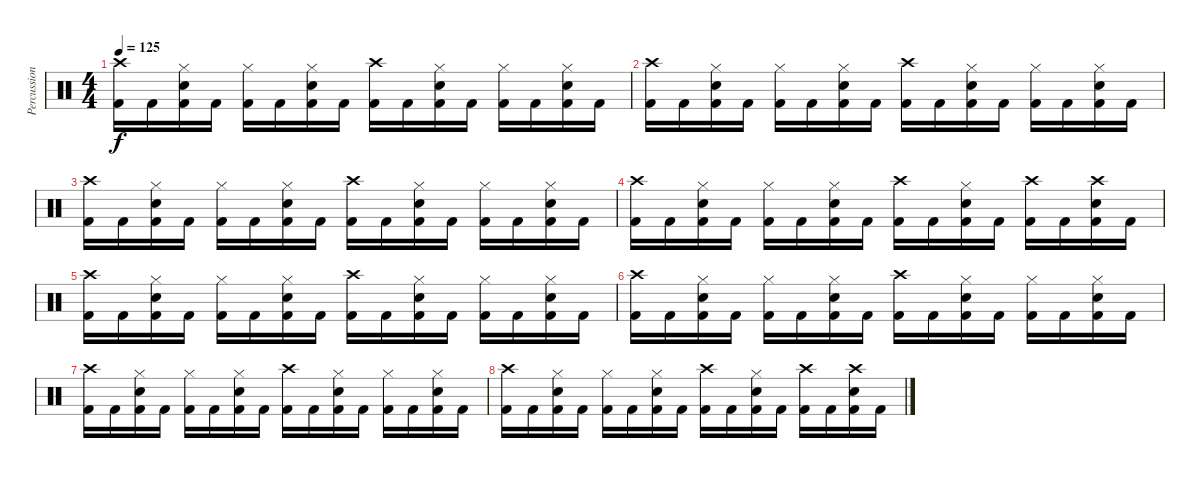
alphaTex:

\track ("Percussion" "Percussion") {instrument percussion}
\staff {score}
\articulation defaults
\ts (4 4)
\tempo 125
\clef neutral
\ks c
("Crash high (hit)" "Kick (hit) 2").16{dy f} "Kick (hit) 2".16 ("Hi-Hat (closed)" "Snare (hit) 2" "Kick (hit) 2").16 "Kick (hit) 2".16 ("Hi-Hat (closed)" "Kick (hit) 2").16 "Kick (hit) 2".16 ("Hi-Hat (closed)" "Snare (hit) 2" "Kick (hit) 2").16 "Kick (hit) 2".16 ("Crash high (hit)" "Kick (hit) 2").16 "Kick (hit) 2".16 ("Hi-Hat (closed)" "Snare (hit) 2" "Kick (hit) 2").16 "Kick (hit) 2".16 ("Hi-Hat (closed)" "Kick (hit) 2").16 "Kick (hit) 2".16 ("Hi-Hat (closed)" "Snare (hit) 2" "Kick (hit) 2").16 "Kick (hit) 2".16 |
("Crash high (hit)" "Kick (hit) 2").16 "Kick (hit) 2".16 ("Hi-Hat (closed)" "Snare (hit) 2" "Kick (hit) 2").16 "Kick (hit) 2".16 ("Hi-Hat (closed)" "Kick (hit) 2").16 "Kick (hit) 2".16 ("Hi-Hat (closed)" "Snare (hit) 2" "Kick (hit) 2").16 "Kick (hit) 2".16 ("Crash high (hit)" "Kick (hit) 2").16 "Kick (hit) 2".16 ("Hi-Hat (closed)" "Snare (hit) 2" "Kick (hit) 2").16 "Kick (hit) 2".16 ("Hi-Hat (closed)" "Kick (hit) 2").16 "Kick (hit) 2".16 ("Hi-Hat (closed)" "Snare (hit) 2" "Kick (hit) 2").16 "Kick (hit) 2".16 |
("Crash high (hit)" "Kick (hit) 2").16 "Kick (hit) 2".16 ("Hi-Hat (closed)" "Snare (hit) 2" "Kick (hit) 2").16 "Kick (hit) 2".16 ("Hi-Hat (closed)" "Kick (hit) 2").16 "Kick (hit) 2".16 ("Hi-Hat (closed)" "Snare (hit) 2" "Kick (hit) 2").16 "Kick (hit) 2".16 ("Crash high (hit)" "Kick (hit) 2").16 "Kick (hit) 2".16 ("Hi-Hat (closed)" "Snare (hit) 2" "Kick (hit) 2").16 "Kick (hit) 2".16 ("Hi-Hat (closed)" "Kick (hit) 2").16 "Kick (hit) 2".16 ("Hi-Hat (closed)" "Snare (hit) 2" "Kick (hit) 2").16 "Kick (hit) 2".16 |
("Crash high (hit)" "Kick (hit) 2").16 "Kick (hit) 2".16 ("Hi-Hat (closed)" "Snare (hit) 2" "Kick (hit) 2").16 "Kick (hit) 2".16 ("Hi-Hat (closed)" "Kick (hit) 2").16 "Kick (hit) 2".16 ("Hi-Hat (closed)" "Snare (hit) 2" "Kick (hit) 2").16 "Kick (hit) 2".16 ("Crash high (hit)" "Kick (hit) 2").16 "Kick (hit) 2".16 ("Hi-Hat (closed)" "Snare (hit) 2" "Kick (hit) 2").16 "Kick (hit) 2".16 ("Crash high (hit)" "Kick (hit) 2").16 "Kick (hit) 2".16 ("Crash high (hit)" "Snare (hit) 2" "Kick (hit) 2").16 "Kick (hit) 2".16 |
("Crash high (hit)" "Kick (hit) 2").16 "Kick (hit) 2".16 ("Hi-Hat (closed)" "Snare (hit) 2" "Kick (hit) 2").16 "Kick (hit) 2".16 ("Hi-Hat (closed)" "Kick (hit) 2").16 "Kick (hit) 2".16 ("Hi-Hat (closed)" "Snare (hit) 2" "Kick (hit) 2").16 "Kick (hit) 2".16 ("Crash high (hit)" "Kick (hit) 2").16 "Kick (hit) 2".16 ("Hi-Hat (closed)" "Snare (hit) 2" "Kick (hit) 2").16 "Kick (hit) 2".16 ("Hi-Hat (closed)" "Kick (hit) 2").16 "Kick (hit) 2".16 ("Hi-Hat (closed)" "Snare (hit) 2" "Kick (hit) 2").16 "Kick (hit) 2".16 |
("Crash high (hit)" "Kick (hit) 2").16 "Kick (hit) 2".16 ("Hi-Hat (closed)" "Snare (hit) 2" "Kick (hit) 2").16 "Kick (hit) 2".16 ("Hi-Hat (closed)" "Kick (hit) 2").16 "Kick (hit) 2".16 ("Hi-Hat (closed)" "Snare (hit) 2" "Kick (hit) 2").16 "Kick (hit) 2".16 ("Crash high (hit)" "Kick (hit) 2").16 "Kick (hit) 2".16 ("Hi-Hat (closed)" "Snare (hit) 2" "Kick (hit) 2").16 "Kick (hit) 2".16 ("Hi-Hat (closed)" "Kick (hit) 2").16 "Kick (hit) 2".16 ("Hi-Hat (closed)" "Snare (hit) 2" "Kick (hit) 2").16 "Kick (hit) 2".16 |
("Crash high (hit)" "Kick (hit) 2").16 "Kick (hit) 2".16 ("Hi-Hat (closed)" "Snare (hit) 2" "Kick (hit) 2").16 "Kick (hit) 2".16 ("Hi-Hat (closed)" "Kick (hit) 2").16 "Kick (hit) 2".16 ("Hi-Hat (closed)" "Snare (hit) 2" "Kick (hit) 2").16 "Kick (hit) 2".16 ("Crash high (hit)" "Kick (hit) 2").16 "Kick (hit) 2".16 ("Hi-Hat (closed)" "Snare (hit) 2" "Kick (hit) 2").16 "Kick (hit) 2".16 ("Hi-Hat (closed)" "Kick (hit) 2").16 "Kick (hit) 2".16 ("Hi-Hat (closed)" "Snare (hit) 2" "Kick (hit) 2").16 "Kick (hit) 2".16 |
("Crash high (hit)" "Kick (hit) 2").16 "Kick (hit) 2".16 ("Hi-Hat (closed)" "Snare (hit) 2" "Kick (hit) 2").16 "Kick (hit) 2".16 ("Hi-Hat (closed)" "Kick (hit) 2").16 "Kick (hit) 2".16 ("Hi-Hat (closed)" "Snare (hit) 2" "Kick (hit) 2").16 "Kick (hit) 2".16 ("Crash high (hit)" "Kick (hit) 2").16 "Kick (hit) 2".16 ("Hi-Hat (closed)" "Snare (hit) 2" "Kick (hit) 2").16 "Kick (hit) 2".16 ("Crash high (hit)" "Kick (hit) 2").16 "Kick (hit) 2".16 ("Crash high (hit)" "Snare (hit) 2" "Kick (hit) 2").16 "Kick (hit) 2".16
